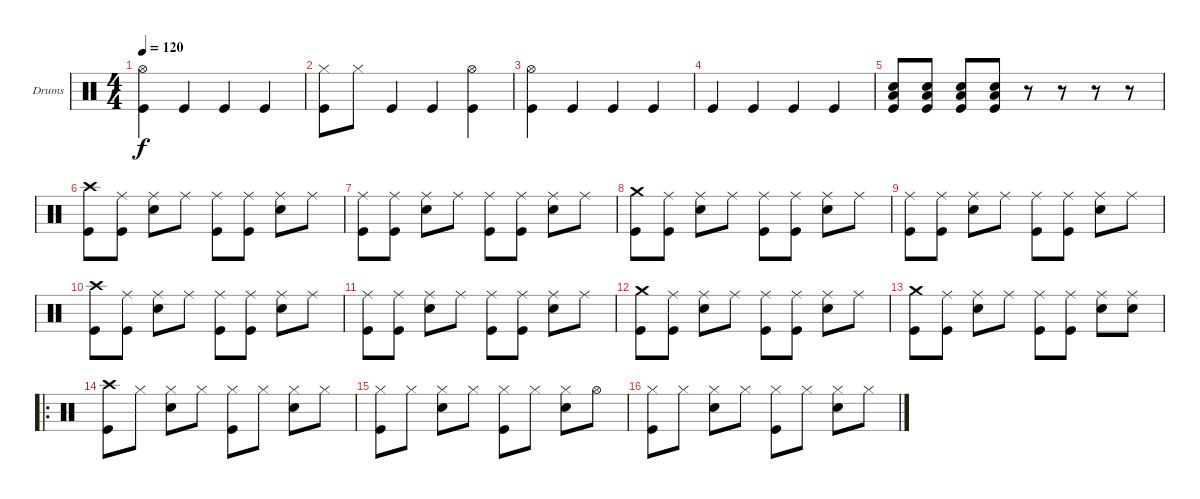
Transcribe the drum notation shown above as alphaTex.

\bracketExtendMode groupsimilarinstruments
\firstSystemTrackNameOrientation horizontal
\otherSystemsTrackNameOrientation horizontal
\track ("Drumkit" "Drums") {instrument percussion}
\staff {score}
\articulation defaults
\ts (4 4)
\tempo 120
\clef neutral
\ks c
("Kick (hit)" "Hi-Hat (open)").4{dy f} "Kick (hit)".4 "Kick (hit)".4 "Kick (hit)".4 |
("Hi-Hat (closed)" "Kick (hit)").8 "Hi-Hat (closed)".8 "Kick (hit)".4 "Kick (hit)".4 ("Kick (hit)" "Hi-Hat (open)").4 |
("Kick (hit)" "Hi-Hat (open)").4 "Kick (hit)".4 "Kick (hit)".4 "Kick (hit)".4 |
"Kick (hit)".4 "Kick (hit)".4 "Kick (hit)".4 "Kick (hit)".4 |
("Snare (hit) 2" "Kick (hit)" "Low Tom (hit)").8 ("Snare (hit) 2" "Kick (hit)" "Low Tom (hit)").8 ("Snare (hit) 2" "Kick (hit)" "Low Tom (hit)").8 ("Snare (hit) 2" "Kick (hit)" "Low Tom (hit)").8 r.8 r.8 r.8 r.8 |
("Kick (hit)" "Crash high (hit)").8 ("Ride (middle)" "Kick (hit)").8 ("Ride (middle)" "Snare (hit) 2").8 "Ride (middle)".8 ("Ride (middle)" "Kick (hit)").8 ("Ride (middle)" "Kick (hit)").8 ("Ride (middle)" "Snare (hit) 2").8 "Ride (middle)".8 |
("Ride (middle)" "Kick (hit)").8 ("Ride (middle)" "Kick (hit)").8 ("Ride (middle)" "Snare (hit) 2").8 "Ride (middle)".8 ("Ride (middle)" "Kick (hit)").8 ("Ride (middle)" "Kick (hit)").8 ("Ride (middle)" "Snare (hit) 2").8 "Ride (middle)".8 |
("Kick (hit)" "Crash medium (hit)").8 ("Ride (middle)" "Kick (hit)").8 ("Ride (middle)" "Snare (hit) 2").8 "Ride (middle)".8 ("Ride (middle)" "Kick (hit)").8 ("Ride (middle)" "Kick (hit)").8 ("Ride (middle)" "Snare (hit) 2").8 "Ride (middle)".8 |
("Ride (middle)" "Kick (hit)").8 ("Ride (middle)" "Kick (hit)").8 ("Ride (middle)" "Snare (hit) 2").8 "Ride (middle)".8 ("Ride (middle)" "Kick (hit)").8 ("Ride (middle)" "Kick (hit)").8 ("Ride (middle)" "Snare (hit) 2").8 "Ride (middle)".8 |
("Kick (hit)" "Crash high (hit)").8 ("Ride (middle)" "Kick (hit)").8 ("Ride (middle)" "Snare (hit) 2").8 "Ride (middle)".8 ("Ride (middle)" "Kick (hit)").8 ("Ride (middle)" "Kick (hit)").8 ("Ride (middle)" "Snare (hit) 2").8 "Ride (middle)".8 |
("Ride (middle)" "Kick (hit)").8 ("Ride (middle)" "Kick (hit)").8 ("Ride (middle)" "Snare (hit) 2").8 "Ride (middle)".8 ("Ride (middle)" "Kick (hit)").8 ("Ride (middle)" "Kick (hit)").8 ("Ride (middle)" "Snare (hit) 2").8 "Ride (middle)".8 |
("Kick (hit)" "Crash medium (hit)").8 ("Ride (middle)" "Kick (hit)").8 ("Ride (middle)" "Snare (hit) 2").8 "Ride (middle)".8 ("Ride (middle)" "Kick (hit)").8 ("Ride (middle)" "Kick (hit)").8 ("Ride (middle)" "Snare (hit) 2").8 "Ride (middle)".8 |
("Kick (hit)" "Crash medium (hit)").8 ("Ride (middle)" "Kick (hit)").8 ("Ride (middle)" "Snare (hit) 2").8 "Ride (middle)".8 ("Ride (middle)" "Kick (hit)").8 ("Ride (middle)" "Kick (hit)").8 ("Ride (middle)" "Snare (hit) 2").8 ("Ride (middle)" "Snare (hit) 2").8 |
\ro
("Kick (hit)" "Crash high (hit)").8 "Hi-Hat (closed)".8 ("Snare (hit) 2" "Hi-Hat (closed)").8 "Hi-Hat (closed)".8 ("Kick (hit)" "Hi-Hat (closed)").8 "Hi-Hat (closed)".8 ("Snare (hit) 2" "Hi-Hat (closed)").8 "Hi-Hat (closed)".8 |
("Kick (hit)" "Hi-Hat (closed)").8 "Hi-Hat (closed)".8 ("Snare (hit) 2" "Hi-Hat (closed)").8 "Hi-Hat (closed)".8 ("Kick (hit)" "Hi-Hat (closed)").8 "Hi-Hat (closed)".8 ("Snare (hit) 2" "Hi-Hat (closed)").8 "Hi-Hat (open)".8 |
("Kick (hit)" "Hi-Hat (closed)").8 "Hi-Hat (closed)".8 ("Snare (hit) 2" "Hi-Hat (closed)").8 "Hi-Hat (closed)".8 ("Kick (hit)" "Hi-Hat (closed)").8 "Hi-Hat (closed)".8 ("Snare (hit) 2" "Hi-Hat (closed)").8 "Hi-Hat (closed)".8
